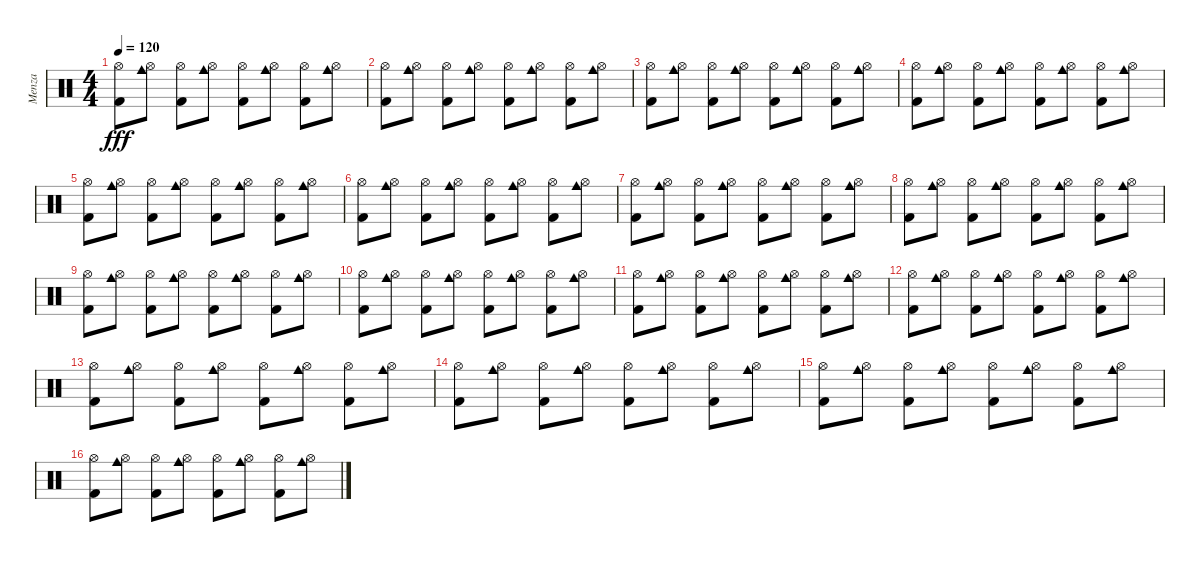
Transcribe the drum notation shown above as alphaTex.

\track ("Menza" "Menza") {instrument percussion}
\staff {score}
\articulation defaults
\ts (4 4)
\tempo 120
\clef neutral
\ks c
("Hi-Hat (open)" "Kick (hit) 2").8{dy fff} ("Hi-Hat (open)" "Cowbell medium (hit)").8 ("Hi-Hat (open)" "Kick (hit) 2").8 ("Hi-Hat (open)" "Cowbell medium (hit)").8 ("Hi-Hat (open)" "Kick (hit) 2").8 ("Hi-Hat (open)" "Cowbell medium (hit)").8 ("Hi-Hat (open)" "Kick (hit) 2").8 ("Hi-Hat (open)" "Cowbell medium (hit)").8 |
("Hi-Hat (open)" "Kick (hit) 2").8 ("Hi-Hat (open)" "Cowbell medium (hit)").8 ("Hi-Hat (open)" "Kick (hit) 2").8 ("Hi-Hat (open)" "Cowbell medium (hit)").8 ("Hi-Hat (open)" "Kick (hit) 2").8 ("Hi-Hat (open)" "Cowbell medium (hit)").8 ("Hi-Hat (open)" "Kick (hit) 2").8 ("Hi-Hat (open)" "Cowbell medium (hit)").8 |
("Hi-Hat (open)" "Kick (hit) 2").8 ("Hi-Hat (open)" "Cowbell medium (hit)").8 ("Hi-Hat (open)" "Kick (hit) 2").8 ("Hi-Hat (open)" "Cowbell medium (hit)").8 ("Hi-Hat (open)" "Kick (hit) 2").8 ("Hi-Hat (open)" "Cowbell medium (hit)").8 ("Hi-Hat (open)" "Kick (hit) 2").8 ("Hi-Hat (open)" "Cowbell medium (hit)").8 |
("Hi-Hat (open)" "Kick (hit) 2").8 ("Hi-Hat (open)" "Cowbell medium (hit)").8 ("Hi-Hat (open)" "Kick (hit) 2").8 ("Hi-Hat (open)" "Cowbell medium (hit)").8 ("Hi-Hat (open)" "Kick (hit) 2").8 ("Hi-Hat (open)" "Cowbell medium (hit)").8 ("Hi-Hat (open)" "Kick (hit) 2").8 ("Hi-Hat (open)" "Cowbell medium (hit)").8 |
("Hi-Hat (open)" "Kick (hit) 2").8 ("Hi-Hat (open)" "Cowbell medium (hit)").8 ("Hi-Hat (open)" "Kick (hit) 2").8 ("Hi-Hat (open)" "Cowbell medium (hit)").8 ("Hi-Hat (open)" "Kick (hit) 2").8 ("Hi-Hat (open)" "Cowbell medium (hit)").8 ("Hi-Hat (open)" "Kick (hit) 2").8 ("Hi-Hat (open)" "Cowbell medium (hit)").8 |
("Hi-Hat (open)" "Kick (hit) 2").8 ("Hi-Hat (open)" "Cowbell medium (hit)").8 ("Hi-Hat (open)" "Kick (hit) 2").8 ("Hi-Hat (open)" "Cowbell medium (hit)").8 ("Hi-Hat (open)" "Kick (hit) 2").8 ("Hi-Hat (open)" "Cowbell medium (hit)").8 ("Hi-Hat (open)" "Kick (hit) 2").8 ("Hi-Hat (open)" "Cowbell medium (hit)").8 |
("Hi-Hat (open)" "Kick (hit) 2").8 ("Hi-Hat (open)" "Cowbell medium (hit)").8 ("Hi-Hat (open)" "Kick (hit) 2").8 ("Hi-Hat (open)" "Cowbell medium (hit)").8 ("Hi-Hat (open)" "Kick (hit) 2").8 ("Hi-Hat (open)" "Cowbell medium (hit)").8 ("Hi-Hat (open)" "Kick (hit) 2").8 ("Hi-Hat (open)" "Cowbell medium (hit)").8 |
("Hi-Hat (open)" "Kick (hit) 2").8 ("Hi-Hat (open)" "Cowbell medium (hit)").8 ("Hi-Hat (open)" "Kick (hit) 2").8 ("Hi-Hat (open)" "Cowbell medium (hit)").8 ("Hi-Hat (open)" "Kick (hit) 2").8 ("Hi-Hat (open)" "Cowbell medium (hit)").8 ("Hi-Hat (open)" "Kick (hit) 2").8 ("Hi-Hat (open)" "Cowbell medium (hit)").8 |
("Hi-Hat (open)" "Kick (hit) 2").8 ("Hi-Hat (open)" "Cowbell medium (hit)").8 ("Hi-Hat (open)" "Kick (hit) 2").8 ("Hi-Hat (open)" "Cowbell medium (hit)").8 ("Hi-Hat (open)" "Kick (hit) 2").8 ("Hi-Hat (open)" "Cowbell medium (hit)").8 ("Hi-Hat (open)" "Kick (hit) 2").8 ("Hi-Hat (open)" "Cowbell medium (hit)").8 |
("Hi-Hat (open)" "Kick (hit) 2").8 ("Hi-Hat (open)" "Cowbell medium (hit)").8 ("Hi-Hat (open)" "Kick (hit) 2").8 ("Hi-Hat (open)" "Cowbell medium (hit)").8 ("Hi-Hat (open)" "Kick (hit) 2").8 ("Hi-Hat (open)" "Cowbell medium (hit)").8 ("Hi-Hat (open)" "Kick (hit) 2").8 ("Hi-Hat (open)" "Cowbell medium (hit)").8 |
("Hi-Hat (open)" "Kick (hit) 2").8 ("Hi-Hat (open)" "Cowbell medium (hit)").8 ("Hi-Hat (open)" "Kick (hit) 2").8 ("Hi-Hat (open)" "Cowbell medium (hit)").8 ("Hi-Hat (open)" "Kick (hit) 2").8 ("Hi-Hat (open)" "Cowbell medium (hit)").8 ("Hi-Hat (open)" "Kick (hit) 2").8 ("Hi-Hat (open)" "Cowbell medium (hit)").8 |
("Hi-Hat (open)" "Kick (hit) 2").8 ("Hi-Hat (open)" "Cowbell medium (hit)").8 ("Hi-Hat (open)" "Kick (hit) 2").8 ("Hi-Hat (open)" "Cowbell medium (hit)").8 ("Hi-Hat (open)" "Kick (hit) 2").8 ("Hi-Hat (open)" "Cowbell medium (hit)").8 ("Hi-Hat (open)" "Kick (hit) 2").8 ("Hi-Hat (open)" "Cowbell medium (hit)").8 |
("Hi-Hat (open)" "Kick (hit) 2").8 ("Hi-Hat (open)" "Cowbell medium (hit)").8 ("Hi-Hat (open)" "Kick (hit) 2").8 ("Hi-Hat (open)" "Cowbell medium (hit)").8 ("Hi-Hat (open)" "Kick (hit) 2").8 ("Hi-Hat (open)" "Cowbell medium (hit)").8 ("Hi-Hat (open)" "Kick (hit) 2").8 ("Hi-Hat (open)" "Cowbell medium (hit)").8 |
("Hi-Hat (open)" "Kick (hit) 2").8 ("Hi-Hat (open)" "Cowbell medium (hit)").8 ("Hi-Hat (open)" "Kick (hit) 2").8 ("Hi-Hat (open)" "Cowbell medium (hit)").8 ("Hi-Hat (open)" "Kick (hit) 2").8 ("Hi-Hat (open)" "Cowbell medium (hit)").8 ("Hi-Hat (open)" "Kick (hit) 2").8 ("Hi-Hat (open)" "Cowbell medium (hit)").8 |
("Hi-Hat (open)" "Kick (hit) 2").8 ("Hi-Hat (open)" "Cowbell medium (hit)").8 ("Hi-Hat (open)" "Kick (hit) 2").8 ("Hi-Hat (open)" "Cowbell medium (hit)").8 ("Hi-Hat (open)" "Kick (hit) 2").8 ("Hi-Hat (open)" "Cowbell medium (hit)").8 ("Hi-Hat (open)" "Kick (hit) 2").8 ("Hi-Hat (open)" "Cowbell medium (hit)").8 |
("Hi-Hat (open)" "Kick (hit) 2").8 ("Hi-Hat (open)" "Cowbell medium (hit)").8 ("Hi-Hat (open)" "Kick (hit) 2").8 ("Hi-Hat (open)" "Cowbell medium (hit)").8 ("Hi-Hat (open)" "Kick (hit) 2").8 ("Hi-Hat (open)" "Cowbell medium (hit)").8 ("Hi-Hat (open)" "Kick (hit) 2").8 ("Hi-Hat (open)" "Cowbell medium (hit)").8
